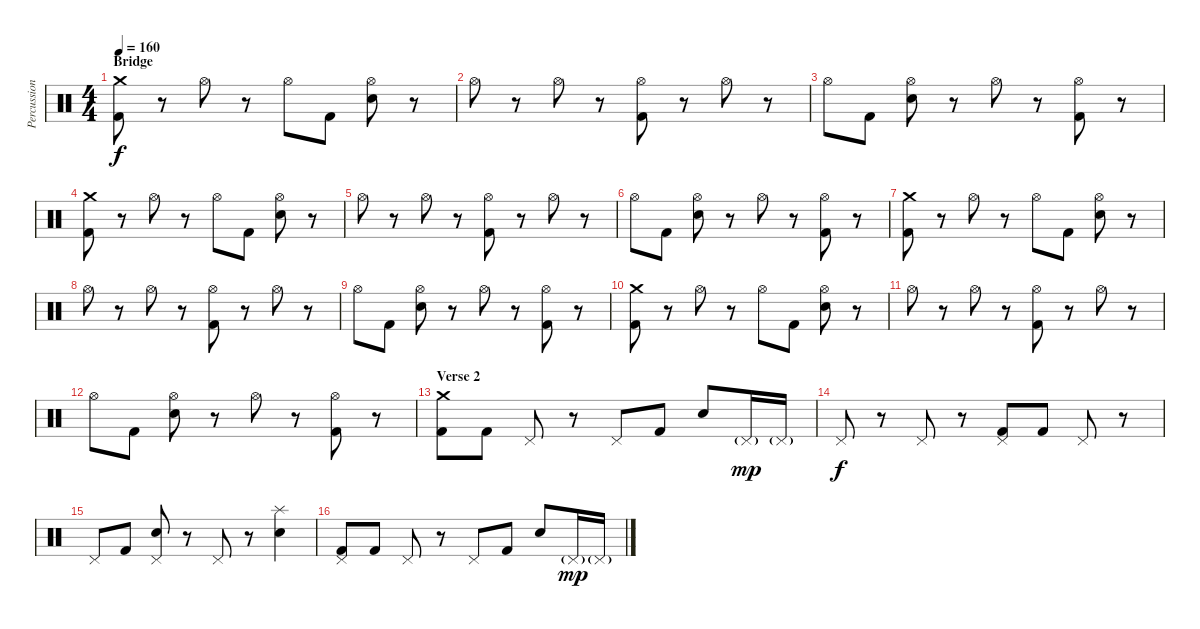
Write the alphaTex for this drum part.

\track ("Percussion" "Percussion") {instrument percussion}
\staff {score}
\articulation defaults
\ts (4 4)
\section ("" "Bridge")
\tempo 160
\clef neutral
\ks c
("Crash medium (hit)" "Kick (hit) 2").8{dy f} r.8 "Hi-Hat (open)".8 r.8 "Hi-Hat (open)".8 "Kick (hit) 2".8 ("Hi-Hat (open)" "Electric Snare (hit)").8 r.8 |
"Hi-Hat (open)".8 r.8 "Hi-Hat (open)".8 r.8 ("Hi-Hat (open)" "Kick (hit) 2").8 r.8 "Hi-Hat (open)".8 r.8 |
"Hi-Hat (open)".8 "Kick (hit) 2".8 ("Hi-Hat (open)" "Electric Snare (hit)").8 r.8 "Hi-Hat (open)".8 r.8 ("Hi-Hat (open)" "Kick (hit) 2").8 r.8 |
("Crash medium (hit)" "Kick (hit) 2").8 r.8 "Hi-Hat (open)".8 r.8 "Hi-Hat (open)".8 "Kick (hit) 2".8 ("Hi-Hat (open)" "Electric Snare (hit)").8 r.8 |
"Hi-Hat (open)".8 r.8 "Hi-Hat (open)".8 r.8 ("Hi-Hat (open)" "Kick (hit) 2").8 r.8 "Hi-Hat (open)".8 r.8 |
"Hi-Hat (open)".8 "Kick (hit) 2".8 ("Hi-Hat (open)" "Electric Snare (hit)").8 r.8 "Hi-Hat (open)".8 r.8 ("Hi-Hat (open)" "Kick (hit) 2").8 r.8 |
("Crash medium (hit)" "Kick (hit) 2").8 r.8 "Hi-Hat (open)".8 r.8 "Hi-Hat (open)".8 "Kick (hit) 2".8 ("Hi-Hat (open)" "Electric Snare (hit)").8 r.8 |
"Hi-Hat (open)".8 r.8 "Hi-Hat (open)".8 r.8 ("Hi-Hat (open)" "Kick (hit) 2").8 r.8 "Hi-Hat (open)".8 r.8 |
"Hi-Hat (open)".8 "Kick (hit) 2".8 ("Hi-Hat (open)" "Electric Snare (hit)").8 r.8 "Hi-Hat (open)".8 r.8 ("Hi-Hat (open)" "Kick (hit) 2").8 r.8 |
("Crash medium (hit)" "Kick (hit) 2").8 r.8 "Hi-Hat (open)".8 r.8 "Hi-Hat (open)".8 "Kick (hit) 2".8 ("Hi-Hat (open)" "Electric Snare (hit)").8 r.8 |
"Hi-Hat (open)".8 r.8 "Hi-Hat (open)".8 r.8 ("Hi-Hat (open)" "Kick (hit) 2").8 r.8 "Hi-Hat (open)".8 r.8 |
"Hi-Hat (open)".8 "Kick (hit) 2".8 ("Hi-Hat (open)" "Electric Snare (hit)").8 r.8 "Hi-Hat (open)".8 r.8 ("Hi-Hat (open)" "Kick (hit) 2").8 r.8 |
\section ("" "Verse 2")
("Crash medium (hit)" "Kick (hit) 2").8 "Kick (hit) 2".8 "Pedal Hi-Hat (hit)".8 r.8 "Pedal Hi-Hat (hit)".8 "Kick (hit) 2".8 "Electric Snare (hit)".8 "Pedal Hi-Hat (hit)"{g}.16{dy mp} "Pedal Hi-Hat (hit)"{g}.16 |
"Pedal Hi-Hat (hit)".8{dy f} r.8 "Pedal Hi-Hat (hit)".8 r.8 ("Pedal Hi-Hat (hit)" "Kick (hit) 2").8 "Kick (hit) 2".8 "Pedal Hi-Hat (hit)".8 r.8 |
"Pedal Hi-Hat (hit)".8 "Kick (hit) 2".8 ("Pedal Hi-Hat (hit)" "Electric Snare (hit)").8 r.8 "Pedal Hi-Hat (hit)".8 r.8 ("Splash (hit)" "Electric Snare (hit)").4 |
("Pedal Hi-Hat (hit)" "Kick (hit) 2").8 "Kick (hit) 2".8 "Pedal Hi-Hat (hit)".8 r.8 "Pedal Hi-Hat (hit)".8 "Kick (hit) 2".8 "Electric Snare (hit)".8 "Pedal Hi-Hat (hit)"{g}.16{dy mp} "Pedal Hi-Hat (hit)"{g}.16
